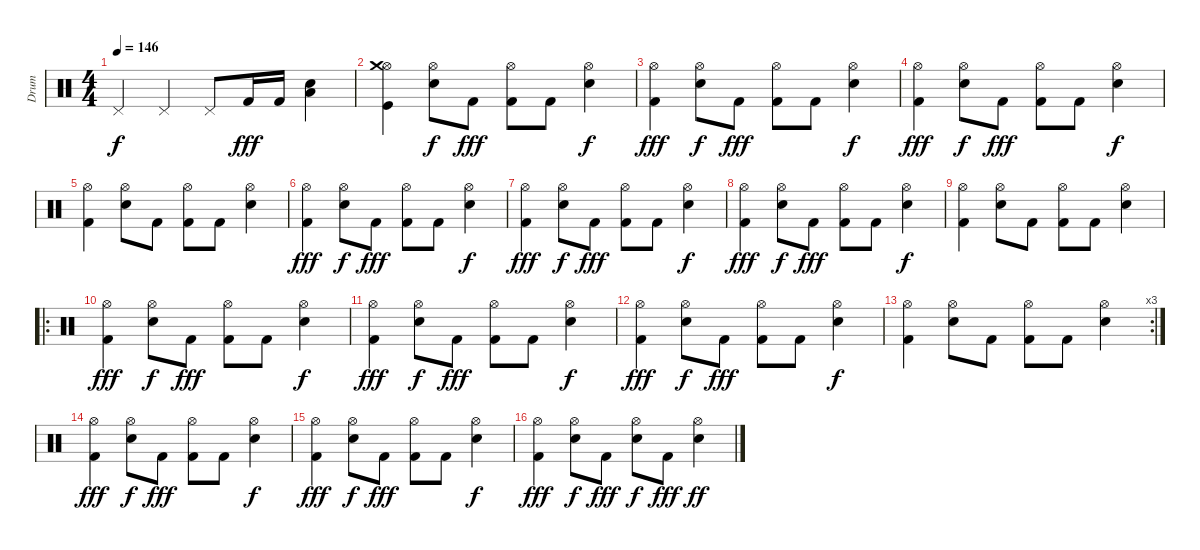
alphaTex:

\track ("Drum" "Drum") {instrument percussion}
\staff {score}
\articulation defaults
\ts (4 4)
\tempo 146
\clef neutral
\ks c "Pedal Hi-Hat (hit)".4{dy f} "Pedal Hi-Hat (hit)".4 "Pedal Hi-Hat (hit)".8 "Kick (hit) 2".16{dy fff} "Kick (hit) 2".16
("Snare (hit) 2" "Low Tom (hit)").4 |
("Kick (hit)" "Hi-Hat (open)" "Crash medium (hit)").4 ("Electric Snare (hit)" "Hi-Hat (open)").8{dy f} "Kick (hit) 2".8{dy fff} ("Kick (hit) 2" "Hi-Hat (open)").8 "Kick (hit) 2".8 ("Electric Snare (hit)" "Hi-Hat (open)").4{dy f} |
("Kick (hit) 2" "Hi-Hat (open)").4{dy fff} ("Electric Snare (hit)" "Hi-Hat (open)").8{dy f} "Kick (hit) 2".8{dy fff} ("Kick (hit) 2" "Hi-Hat (open)").8 "Kick (hit) 2".8 ("Electric Snare (hit)" "Hi-Hat (open)").4{dy f} |
("Kick (hit) 2" "Hi-Hat (open)").4{dy fff} ("Electric Snare (hit)" "Hi-Hat (open)").8{dy f} "Kick (hit) 2".8{dy fff} ("Kick (hit) 2" "Hi-Hat (open)").8 "Kick (hit) 2".8 ("Electric Snare (hit)" "Hi-Hat (open)").4{dy f} |
("Kick (hit) 2" "Hi-Hat (open)").4 ("Electric Snare (hit)" "Hi-Hat (open)").8 "Kick (hit) 2".8 ("Kick (hit) 2" "Hi-Hat (open)").8 "Kick (hit) 2".8 ("Electric Snare (hit)" "Hi-Hat (open)").4 |
("Kick (hit) 2" "Hi-Hat (open)").4{dy fff} ("Electric Snare (hit)" "Hi-Hat (open)").8{dy f} "Kick (hit) 2".8{dy fff} ("Kick (hit) 2" "Hi-Hat (open)").8 "Kick (hit) 2".8 ("Electric Snare (hit)" "Hi-Hat (open)").4{dy f} |
("Kick (hit) 2" "Hi-Hat (open)").4{dy fff} ("Electric Snare (hit)" "Hi-Hat (open)").8{dy f} "Kick (hit) 2".8{dy fff} ("Kick (hit) 2" "Hi-Hat (open)").8 "Kick (hit) 2".8 ("Electric Snare (hit)" "Hi-Hat (open)").4{dy f} |
("Kick (hit) 2" "Hi-Hat (open)").4{dy fff} ("Electric Snare (hit)" "Hi-Hat (open)").8{dy f} "Kick (hit) 2".8{dy fff} ("Kick (hit) 2" "Hi-Hat (open)").8 "Kick (hit) 2".8 ("Electric Snare (hit)" "Hi-Hat (open)").4{dy f} |
("Kick (hit) 2" "Hi-Hat (open)").4 ("Electric Snare (hit)" "Hi-Hat (open)").8 "Kick (hit) 2".8 ("Kick (hit) 2" "Hi-Hat (open)").8 "Kick (hit) 2".8 ("Electric Snare (hit)" "Hi-Hat (open)").4 |
\ro
("Kick (hit) 2" "Hi-Hat (open)").4{dy fff} ("Electric Snare (hit)" "Hi-Hat (open)").8{dy f} "Kick (hit) 2".8{dy fff} ("Kick (hit) 2" "Hi-Hat (open)").8 "Kick (hit) 2".8 ("Electric Snare (hit)" "Hi-Hat (open)").4{dy f} |
("Kick (hit) 2" "Hi-Hat (open)").4{dy fff} ("Electric Snare (hit)" "Hi-Hat (open)").8{dy f} "Kick (hit) 2".8{dy fff} ("Kick (hit) 2" "Hi-Hat (open)").8 "Kick (hit) 2".8 ("Electric Snare (hit)" "Hi-Hat (open)").4{dy f} |
("Kick (hit) 2" "Hi-Hat (open)").4{dy fff} ("Electric Snare (hit)" "Hi-Hat (open)").8{dy f} "Kick (hit) 2".8{dy fff} ("Kick (hit) 2" "Hi-Hat (open)").8 "Kick (hit) 2".8 ("Electric Snare (hit)" "Hi-Hat (open)").4{dy f} |
\rc 3
("Kick (hit) 2" "Hi-Hat (open)").4 ("Electric Snare (hit)" "Hi-Hat (open)").8 "Kick (hit) 2".8 ("Kick (hit) 2" "Hi-Hat (open)").8 "Kick (hit) 2".8 ("Electric Snare (hit)" "Hi-Hat (open)").4 |
("Kick (hit) 2" "Hi-Hat (open)").4{dy fff} ("Electric Snare (hit)" "Hi-Hat (open)").8{dy f} "Kick (hit) 2".8{dy fff} ("Kick (hit) 2" "Hi-Hat (open)").8 "Kick (hit) 2".8 ("Electric Snare (hit)" "Hi-Hat (open)").4{dy f} |
("Kick (hit) 2" "Hi-Hat (open)").4{dy fff} ("Electric Snare (hit)" "Hi-Hat (open)").8{dy f} "Kick (hit) 2".8{dy fff} ("Kick (hit) 2" "Hi-Hat (open)").8 "Kick (hit) 2".8 ("Electric Snare (hit)" "Hi-Hat (open)").4{dy f} |
("Kick (hit) 2" "Hi-Hat (open)").4{dy fff} ("Electric Snare (hit)" "Hi-Hat (open)").8{dy f} "Kick (hit) 2".8{dy fff} ("Electric Snare (hit)" "Hi-Hat (open)").8{dy f} "Kick (hit) 2".8{dy fff} ("Electric Snare (hit)" "Hi-Hat (open)").4{dy ff}
